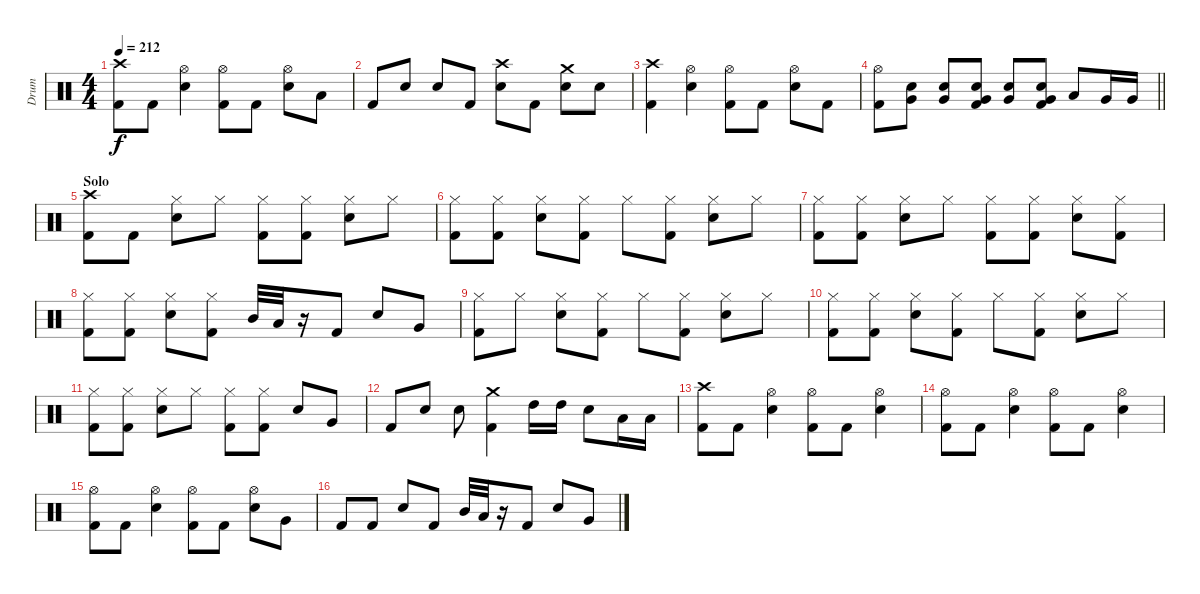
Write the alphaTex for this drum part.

\track ("Drum" "Drum") {instrument percussion}
\staff {score}
\articulation defaults
\ts (4 4)
\tempo 212
\clef neutral
\ks c
("Crash high (hit)" "Kick (hit) 2").8{dy f} "Kick (hit) 2".8 ("Hi-Hat (open)" "Electric Snare (hit)").4 ("Hi-Hat (open)" "Kick (hit) 2").8 "Kick (hit) 2".8 ("Hi-Hat (open)" "Electric Snare (hit)").8 "Low Tom (hit)".8 |
"Kick (hit) 2".8 "Electric Snare (hit)".8 "Electric Snare (hit)".8 "Kick (hit) 2".8 ("Crash high (hit)" "Electric Snare (hit)").8 "Kick (hit) 2".8 ("Crash medium (hit)" "Electric Snare (hit)").8 "Electric Snare (hit)".8 |
("Crash high (hit)" "Kick (hit) 2").4 ("Hi-Hat (open)" "Electric Snare (hit)").4 ("Hi-Hat (open)" "Kick (hit) 2").8 "Kick (hit) 2".8 ("Hi-Hat (open)" "Electric Snare (hit)").8 "Kick (hit) 2".8 |
\barLineRight lightlight
("Hi-Hat (open)" "Kick (hit) 2").8 ("Very Low Tom (hit)" "Electric Snare (hit)").8 ("Very Low Tom (hit)" "Electric Snare (hit)").8 ("Very Low Tom (hit)" "Electric Snare (hit)" "Kick (hit) 2").8 ("Very Low Tom (hit)" "Electric Snare (hit)").8 ("Very Low Tom (hit)" "Electric Snare (hit)" "Kick (hit) 2").8 "Low Tom (hit)".8 "Very Low Tom (hit)".16 "Very Low Tom (hit)".16 |
\section ("" "Solo")
("Crash high (hit)" "Kick (hit) 2").8 "Kick (hit) 2".8 ("Hi-Hat (closed)" "Electric Snare (hit)").8 "Hi-Hat (closed)".8 ("Hi-Hat (closed)" "Kick (hit) 2").8 ("Hi-Hat (closed)" "Kick (hit) 2").8 ("Hi-Hat (closed)" "Electric Snare (hit)").8 "Hi-Hat (closed)".8 |
("Hi-Hat (closed)" "Kick (hit) 2").8 ("Hi-Hat (closed)" "Kick (hit) 2").8 ("Hi-Hat (closed)" "Electric Snare (hit)").8 ("Hi-Hat (closed)" "Kick (hit) 2").8 "Hi-Hat (closed)".8 ("Hi-Hat (closed)" "Kick (hit) 2").8 ("Hi-Hat (closed)" "Electric Snare (hit)").8 "Hi-Hat (closed)".8 |
("Hi-Hat (closed)" "Kick (hit) 2").8 ("Hi-Hat (closed)" "Kick (hit) 2").8 ("Hi-Hat (closed)" "Electric Snare (hit)").8 "Hi-Hat (closed)".8 ("Hi-Hat (closed)" "Kick (hit) 2").8 ("Hi-Hat (closed)" "Kick (hit) 2").8 ("Hi-Hat (closed)" "Electric Snare (hit)").8 ("Hi-Hat (closed)" "Kick (hit) 2").8 |
("Hi-Hat (closed)" "Kick (hit) 2").8 ("Hi-Hat (closed)" "Kick (hit) 2").8 ("Hi-Hat (closed)" "Electric Snare (hit)").8 ("Hi-Hat (closed)" "Kick (hit) 2").8 "Mid Tom (hit)".32 "Low Tom (hit)".32 r.16 "Kick (hit) 2".8 "Electric Snare (hit)".8 "Very Low Tom (hit)".8 |
("Hi-Hat (closed)" "Kick (hit) 2").8 "Hi-Hat (closed)".8 ("Hi-Hat (closed)" "Electric Snare (hit)").8 ("Hi-Hat (closed)" "Kick (hit) 2").8 "Hi-Hat (closed)".8 ("Hi-Hat (closed)" "Kick (hit) 2").8 ("Hi-Hat (closed)" "Electric Snare (hit)").8 "Hi-Hat (closed)".8 |
("Hi-Hat (closed)" "Kick (hit) 2").8 ("Hi-Hat (closed)" "Kick (hit) 2").8 ("Hi-Hat (closed)" "Electric Snare (hit)").8 ("Hi-Hat (closed)" "Kick (hit) 2").8 "Hi-Hat (closed)".8 ("Hi-Hat (closed)" "Kick (hit) 2").8 ("Hi-Hat (closed)" "Electric Snare (hit)").8 "Hi-Hat (closed)".8 |
("Hi-Hat (closed)" "Kick (hit) 2").8 ("Hi-Hat (closed)" "Kick (hit) 2").8 ("Hi-Hat (closed)" "Electric Snare (hit)").8 "Hi-Hat (closed)".8 ("Hi-Hat (closed)" "Kick (hit) 2").8 ("Hi-Hat (closed)" "Kick (hit) 2").8 "Electric Snare (hit)".8 "Very Low Tom (hit)".8 |
"Kick (hit) 2".8 "Electric Snare (hit)".8 "Electric Snare (hit)".8 ("Crash medium (hit)" "Kick (hit) 2").4 "High Tom (hit)".16 "High Tom (hit)".16 "Electric Snare (hit)".8 "Low Tom (hit)".16 "Low Tom (hit)".16 |
("Crash high (hit)" "Kick (hit) 2").8 "Kick (hit) 2".8 ("Hi-Hat (open)" "Electric Snare (hit)").4 ("Hi-Hat (open)" "Kick (hit) 2").8 "Kick (hit) 2".8 ("Hi-Hat (open)" "Electric Snare (hit)").4 |
("Hi-Hat (open)" "Kick (hit) 2").8 "Kick (hit) 2".8 ("Hi-Hat (open)" "Electric Snare (hit)").4 ("Hi-Hat (open)" "Kick (hit) 2").8 "Kick (hit) 2".8 ("Hi-Hat (open)" "Electric Snare (hit)").4 |
("Hi-Hat (open)" "Kick (hit) 2").8 "Kick (hit) 2".8 ("Hi-Hat (open)" "Electric Snare (hit)").4 ("Hi-Hat (open)" "Kick (hit) 2").8 "Kick (hit) 2".8 ("Hi-Hat (open)" "Electric Snare (hit)").8 "Very Low Tom (hit)".8 |
"Kick (hit) 2".8 "Kick (hit) 2".8 "Electric Snare (hit)".8 "Kick (hit) 2".8 "Mid Tom (hit)".32 "Low Tom (hit)".32 r.16 "Kick (hit) 2".8 "Electric Snare (hit)".8 "Very Low Tom (hit)".8
